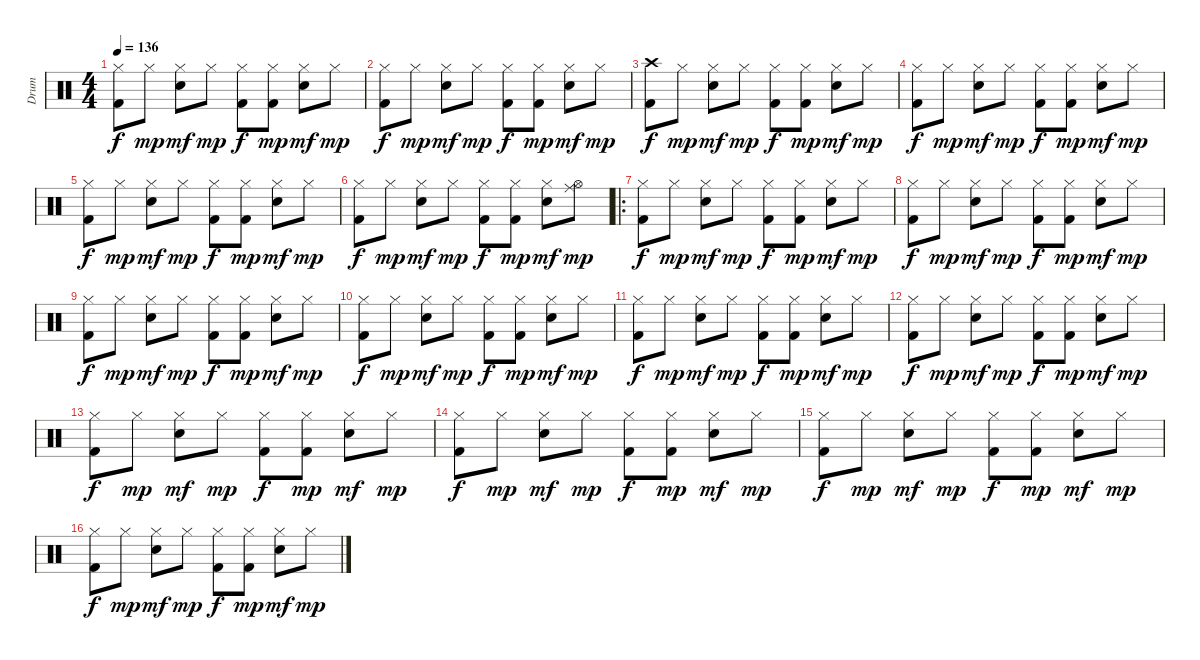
\track ("Drum" "Drum") {instrument percussion}
\staff {score}
\articulation defaults
\ts (4 4)
\tempo 136
\clef neutral
\ks c
("Hi-Hat (closed)" "Kick (hit) 2").8{dy f} "Hi-Hat (closed)".8{dy mp} ("Hi-Hat (closed)" "Snare (hit) 2").8{dy mf} "Hi-Hat (closed)".8{dy mp} ("Hi-Hat (closed)" "Kick (hit) 2").8{dy f} ("Hi-Hat (closed)" "Kick (hit) 2").8{dy mp} ("Hi-Hat (closed)" "Snare (hit) 2").8{dy mf} "Hi-Hat (closed)".8{dy mp} |
("Hi-Hat (closed)" "Kick (hit) 2").8{dy f} "Hi-Hat (closed)".8{dy mp} ("Hi-Hat (closed)" "Snare (hit) 2").8{dy mf} "Hi-Hat (closed)".8{dy mp} ("Hi-Hat (closed)" "Kick (hit) 2").8{dy f} ("Hi-Hat (closed)" "Kick (hit) 2").8{dy mp} ("Hi-Hat (closed)" "Snare (hit) 2").8{dy mf} "Hi-Hat (closed)".8{dy mp} |
("Crash high (hit)" "Kick (hit) 2").8{dy f} "Hi-Hat (closed)".8{dy mp} ("Hi-Hat (closed)" "Snare (hit) 2").8{dy mf} "Hi-Hat (closed)".8{dy mp} ("Hi-Hat (closed)" "Kick (hit) 2").8{dy f} ("Hi-Hat (closed)" "Kick (hit) 2").8{dy mp} ("Hi-Hat (closed)" "Snare (hit) 2").8{dy mf} "Hi-Hat (closed)".8{dy mp} |
("Hi-Hat (closed)" "Kick (hit) 2").8{dy f} "Hi-Hat (closed)".8{dy mp} ("Hi-Hat (closed)" "Snare (hit) 2").8{dy mf} "Hi-Hat (closed)".8{dy mp} ("Hi-Hat (closed)" "Kick (hit) 2").8{dy f} ("Hi-Hat (closed)" "Kick (hit) 2").8{dy mp} ("Hi-Hat (closed)" "Snare (hit) 2").8{dy mf} "Hi-Hat (closed)".8{dy mp} |
("Hi-Hat (closed)" "Kick (hit) 2").8{dy f} "Hi-Hat (closed)".8{dy mp} ("Hi-Hat (closed)" "Snare (hit) 2").8{dy mf} "Hi-Hat (closed)".8{dy mp} ("Hi-Hat (closed)" "Kick (hit) 2").8{dy f} ("Hi-Hat (closed)" "Kick (hit) 2").8{dy mp} ("Hi-Hat (closed)" "Snare (hit) 2").8{dy mf} "Hi-Hat (closed)".8{dy mp} |
("Hi-Hat (closed)" "Kick (hit) 2").8{dy f} "Hi-Hat (closed)".8{dy mp} ("Hi-Hat (closed)" "Snare (hit) 2").8{dy mf} "Hi-Hat (closed)".8{dy mp} ("Hi-Hat (closed)" "Kick (hit) 2").8{dy f} ("Hi-Hat (closed)" "Kick (hit) 2").8{dy mp} ("Hi-Hat (closed)" "Snare (hit) 2").8{dy mf} ("Ride (middle)" "Hi-Hat (open)").8{dy mp} |
\ro
("Hi-Hat (closed)" "Kick (hit) 2").8{dy f} "Hi-Hat (closed)".8{dy mp} ("Hi-Hat (closed)" "Snare (hit) 2").8{dy mf} "Hi-Hat (closed)".8{dy mp} ("Hi-Hat (closed)" "Kick (hit) 2").8{dy f} ("Hi-Hat (closed)" "Kick (hit) 2").8{dy mp} ("Hi-Hat (closed)" "Snare (hit) 2").8{dy mf} "Hi-Hat (closed)".8{dy mp} |
("Hi-Hat (closed)" "Kick (hit) 2").8{dy f} "Hi-Hat (closed)".8{dy mp} ("Hi-Hat (closed)" "Snare (hit) 2").8{dy mf} "Hi-Hat (closed)".8{dy mp} ("Hi-Hat (closed)" "Kick (hit) 2").8{dy f} ("Hi-Hat (closed)" "Kick (hit) 2").8{dy mp} ("Hi-Hat (closed)" "Snare (hit) 2").8{dy mf} "Hi-Hat (closed)".8{dy mp} |
("Hi-Hat (closed)" "Kick (hit) 2").8{dy f} "Hi-Hat (closed)".8{dy mp} ("Hi-Hat (closed)" "Snare (hit) 2").8{dy mf} "Hi-Hat (closed)".8{dy mp} ("Hi-Hat (closed)" "Kick (hit) 2").8{dy f} ("Hi-Hat (closed)" "Kick (hit) 2").8{dy mp} ("Hi-Hat (closed)" "Snare (hit) 2").8{dy mf} "Hi-Hat (closed)".8{dy mp} |
("Hi-Hat (closed)" "Kick (hit) 2").8{dy f} "Hi-Hat (closed)".8{dy mp} ("Hi-Hat (closed)" "Snare (hit) 2").8{dy mf} "Hi-Hat (closed)".8{dy mp} ("Hi-Hat (closed)" "Kick (hit) 2").8{dy f} ("Hi-Hat (closed)" "Kick (hit) 2").8{dy mp} ("Hi-Hat (closed)" "Snare (hit) 2").8{dy mf} "Hi-Hat (closed)".8{dy mp} |
("Hi-Hat (closed)" "Kick (hit) 2").8{dy f} "Hi-Hat (closed)".8{dy mp} ("Hi-Hat (closed)" "Snare (hit) 2").8{dy mf} "Hi-Hat (closed)".8{dy mp} ("Hi-Hat (closed)" "Kick (hit) 2").8{dy f} ("Hi-Hat (closed)" "Kick (hit) 2").8{dy mp} ("Hi-Hat (closed)" "Snare (hit) 2").8{dy mf} "Hi-Hat (closed)".8{dy mp} |
("Hi-Hat (closed)" "Kick (hit) 2").8{dy f} "Hi-Hat (closed)".8{dy mp} ("Hi-Hat (closed)" "Snare (hit) 2").8{dy mf} "Hi-Hat (closed)".8{dy mp} ("Hi-Hat (closed)" "Kick (hit) 2").8{dy f} ("Hi-Hat (closed)" "Kick (hit) 2").8{dy mp} ("Hi-Hat (closed)" "Snare (hit) 2").8{dy mf} "Hi-Hat (closed)".8{dy mp} |
("Hi-Hat (closed)" "Kick (hit) 2").8{dy f} "Hi-Hat (closed)".8{dy mp} ("Hi-Hat (closed)" "Snare (hit) 2").8{dy mf} "Hi-Hat (closed)".8{dy mp} ("Hi-Hat (closed)" "Kick (hit) 2").8{dy f} ("Hi-Hat (closed)" "Kick (hit) 2").8{dy mp} ("Hi-Hat (closed)" "Snare (hit) 2").8{dy mf} "Hi-Hat (closed)".8{dy mp} |
("Hi-Hat (closed)" "Kick (hit) 2").8{dy f} "Hi-Hat (closed)".8{dy mp} ("Hi-Hat (closed)" "Snare (hit) 2").8{dy mf} "Hi-Hat (closed)".8{dy mp} ("Hi-Hat (closed)" "Kick (hit) 2").8{dy f} ("Hi-Hat (closed)" "Kick (hit) 2").8{dy mp} ("Hi-Hat (closed)" "Snare (hit) 2").8{dy mf} "Hi-Hat (closed)".8{dy mp} |
("Hi-Hat (closed)" "Kick (hit) 2").8{dy f} "Hi-Hat (closed)".8{dy mp} ("Hi-Hat (closed)" "Snare (hit) 2").8{dy mf} "Hi-Hat (closed)".8{dy mp} ("Hi-Hat (closed)" "Kick (hit) 2").8{dy f} ("Hi-Hat (closed)" "Kick (hit) 2").8{dy mp} ("Hi-Hat (closed)" "Snare (hit) 2").8{dy mf} "Hi-Hat (closed)".8{dy mp} |
("Hi-Hat (closed)" "Kick (hit) 2").8{dy f} "Hi-Hat (closed)".8{dy mp} ("Hi-Hat (closed)" "Snare (hit) 2").8{dy mf} "Hi-Hat (closed)".8{dy mp} ("Hi-Hat (closed)" "Kick (hit) 2").8{dy f} ("Hi-Hat (closed)" "Kick (hit) 2").8{dy mp} ("Hi-Hat (closed)" "Snare (hit) 2").8{dy mf} "Hi-Hat (closed)".8{dy mp}
